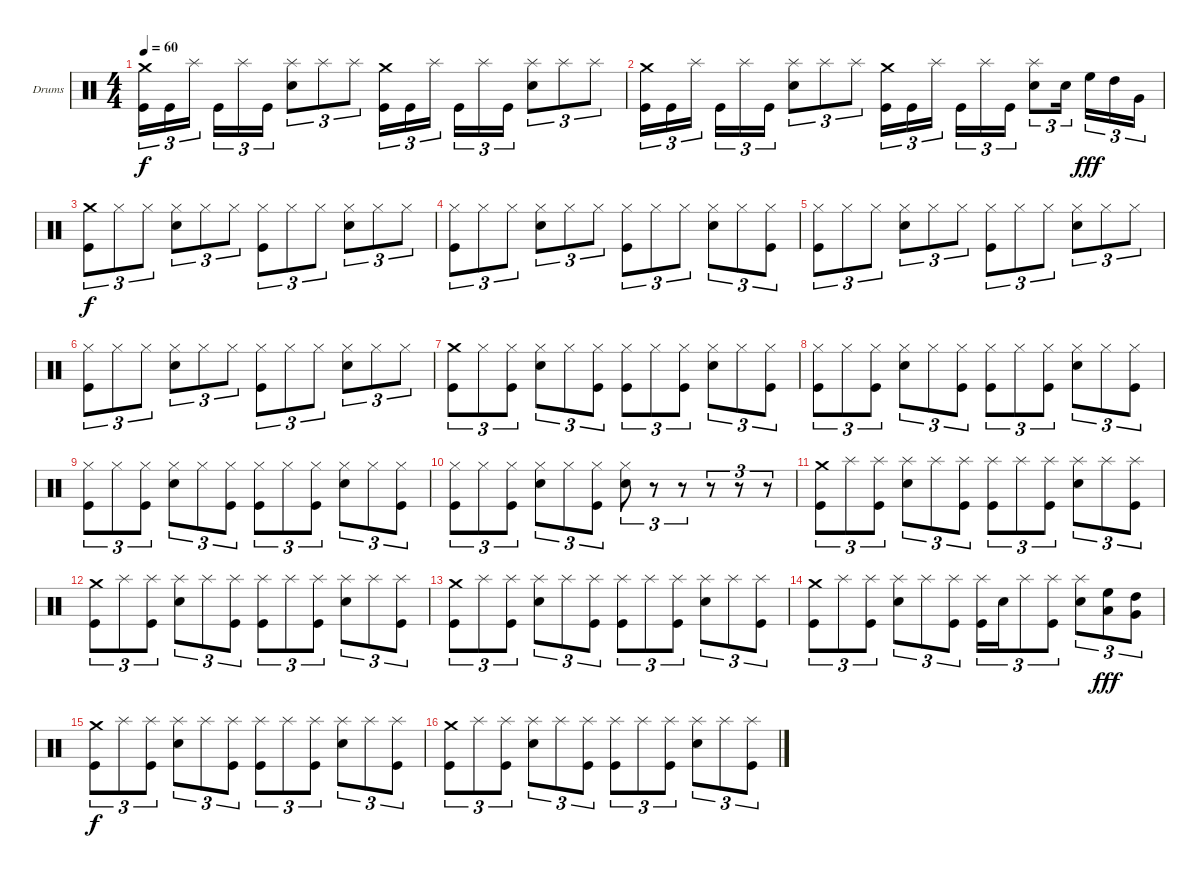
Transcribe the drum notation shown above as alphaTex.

\bracketExtendMode groupsimilarinstruments
\firstSystemTrackNameOrientation horizontal
\otherSystemsTrackNameOrientation horizontal
\track ("Drumkit" "Drums") {instrument percussion}
\staff {score}
\articulation defaults
\ts (4 4)
\tempo 60
\clef neutral
\ks c
("Crash medium (hit)" "Kick (hit)").16{tu (3 2) dy f} "Kick (hit)".16{tu (3 2)} "Splash (hit)".16{tu (3 2)} "Kick (hit)".16{tu (3 2)} "Splash (hit)".16{tu (3 2)} "Kick (hit)".16{tu (3 2)} ("Splash (hit)" "Snare (hit) 2").8{tu (3 2)} "Splash (hit)".8{tu (3 2)} "Splash (hit)".8{tu (3 2)} ("Crash medium (hit)" "Kick (hit)").16{tu (3 2)} "Kick (hit)".16{tu (3 2)} "Splash (hit)".16{tu (3 2)} "Kick (hit)".16{tu (3 2)} "Splash (hit)".16{tu (3 2)} "Kick (hit)".16{tu (3 2)} ("Splash (hit)" "Snare (hit) 2").8{tu (3 2)} "Splash (hit)".8{tu (3 2)} "Splash (hit)".8{tu (3 2)} |
("Crash medium (hit)" "Kick (hit)").16{tu (3 2)} "Kick (hit)".16{tu (3 2)} "Splash (hit)".16{tu (3 2)} "Kick (hit)".16{tu (3 2)} "Splash (hit)".16{tu (3 2)} "Kick (hit)".16{tu (3 2)} ("Splash (hit)" "Snare (hit) 2").8{tu (3 2)} "Splash (hit)".8{tu (3 2)} "Splash (hit)".8{tu (3 2)} ("Crash medium (hit)" "Kick (hit)").16{tu (3 2)} "Kick (hit)".16{tu (3 2)} "Splash (hit)".16{tu (3 2)} "Kick (hit)".16{tu (3 2)} "Splash (hit)".16{tu (3 2)} "Kick (hit)".16{tu (3 2)} ("Splash (hit)" "Snare (hit) 2").8{tu (3 2)} "Snare (hit) 2".16{tu (3 2)} "High Floor Tom (hit)".16{tu (3 2) dy fff} "High Tom (hit)".16{tu (3 2)} "Very Low Tom (hit)".16{tu (3 2)} |
("Crash medium (hit)" "Kick (hit)").8{tu (3 2) dy f} "Hi-Hat (closed)".8{tu (3 2)} "Hi-Hat (closed)".8{tu (3 2)} ("Hi-Hat (closed)" "Snare (hit) 2").8{tu (3 2)} "Hi-Hat (closed)".8{tu (3 2)} "Hi-Hat (closed)".8{tu (3 2)} ("Hi-Hat (closed)" "Kick (hit)").8{tu (3 2)} "Hi-Hat (closed)".8{tu (3 2)} "Hi-Hat (closed)".8{tu (3 2)} ("Hi-Hat (closed)" "Snare (hit) 2").8{tu (3 2)} "Hi-Hat (closed)".8{tu (3 2)} "Hi-Hat (closed)".8{tu (3 2)} |
("Hi-Hat (closed)" "Kick (hit)").8{tu (3 2)} "Hi-Hat (closed)".8{tu (3 2)} "Hi-Hat (closed)".8{tu (3 2)} ("Hi-Hat (closed)" "Snare (hit) 2").8{tu (3 2)} "Hi-Hat (closed)".8{tu (3 2)} "Hi-Hat (closed)".8{tu (3 2)} ("Hi-Hat (closed)" "Kick (hit)").8{tu (3 2)} "Hi-Hat (closed)".8{tu (3 2)} "Hi-Hat (closed)".8{tu (3 2)} ("Hi-Hat (closed)" "Snare (hit) 2").8{tu (3 2)} "Hi-Hat (closed)".8{tu (3 2)} ("Hi-Hat (closed)" "Kick (hit)").8{tu (3 2)} |
("Hi-Hat (closed)" "Kick (hit)").8{tu (3 2)} "Hi-Hat (closed)".8{tu (3 2)} "Hi-Hat (closed)".8{tu (3 2)} ("Hi-Hat (closed)" "Snare (hit) 2").8{tu (3 2)} "Hi-Hat (closed)".8{tu (3 2)} "Hi-Hat (closed)".8{tu (3 2)} ("Hi-Hat (closed)" "Kick (hit)").8{tu (3 2)} "Hi-Hat (closed)".8{tu (3 2)} "Hi-Hat (closed)".8{tu (3 2)} ("Hi-Hat (closed)" "Snare (hit) 2").8{tu (3 2)} "Hi-Hat (closed)".8{tu (3 2)} "Hi-Hat (closed)".8{tu (3 2)} |
("Hi-Hat (closed)" "Kick (hit)").8{tu (3 2)} "Hi-Hat (closed)".8{tu (3 2)} "Hi-Hat (closed)".8{tu (3 2)} ("Hi-Hat (closed)" "Snare (hit) 2").8{tu (3 2)} "Hi-Hat (closed)".8{tu (3 2)} "Hi-Hat (closed)".8{tu (3 2)} ("Hi-Hat (closed)" "Kick (hit)").8{tu (3 2)} "Hi-Hat (closed)".8{tu (3 2)} "Hi-Hat (closed)".8{tu (3 2)} ("Hi-Hat (closed)" "Snare (hit) 2").8{tu (3 2)} "Hi-Hat (closed)".8{tu (3 2)} "Hi-Hat (closed)".8{tu (3 2)} |
("Crash medium (hit)" "Kick (hit)").8{tu (3 2)} "Hi-Hat (closed)".8{tu (3 2)} ("Hi-Hat (closed)" "Kick (hit)").8{tu (3 2)} ("Hi-Hat (closed)" "Snare (hit) 2").8{tu (3 2)} "Hi-Hat (closed)".8{tu (3 2)} ("Hi-Hat (closed)" "Kick (hit)").8{tu (3 2)} ("Hi-Hat (closed)" "Kick (hit)").8{tu (3 2)} "Hi-Hat (closed)".8{tu (3 2)} ("Hi-Hat (closed)" "Kick (hit)").8{tu (3 2)} ("Hi-Hat (closed)" "Snare (hit) 2").8{tu (3 2)} "Hi-Hat (closed)".8{tu (3 2)} ("Hi-Hat (closed)" "Kick (hit)").8{tu (3 2)} |
("Hi-Hat (closed)" "Kick (hit)").8{tu (3 2)} "Hi-Hat (closed)".8{tu (3 2)} ("Hi-Hat (closed)" "Kick (hit)").8{tu (3 2)} ("Hi-Hat (closed)" "Snare (hit) 2").8{tu (3 2)} "Hi-Hat (closed)".8{tu (3 2)} ("Hi-Hat (closed)" "Kick (hit)").8{tu (3 2)} ("Hi-Hat (closed)" "Kick (hit)").8{tu (3 2)} "Hi-Hat (closed)".8{tu (3 2)} ("Hi-Hat (closed)" "Kick (hit)").8{tu (3 2)} ("Hi-Hat (closed)" "Snare (hit) 2").8{tu (3 2)} "Hi-Hat (closed)".8{tu (3 2)} ("Hi-Hat (closed)" "Kick (hit)").8{tu (3 2)} |
("Hi-Hat (closed)" "Kick (hit)").8{tu (3 2)} "Hi-Hat (closed)".8{tu (3 2)} ("Hi-Hat (closed)" "Kick (hit)").8{tu (3 2)} ("Hi-Hat (closed)" "Snare (hit) 2").8{tu (3 2)} "Hi-Hat (closed)".8{tu (3 2)} ("Hi-Hat (closed)" "Kick (hit)").8{tu (3 2)} ("Hi-Hat (closed)" "Kick (hit)").8{tu (3 2)} "Hi-Hat (closed)".8{tu (3 2)} ("Hi-Hat (closed)" "Kick (hit)").8{tu (3 2)} ("Hi-Hat (closed)" "Snare (hit) 2").8{tu (3 2)} "Hi-Hat (closed)".8{tu (3 2)} ("Hi-Hat (closed)" "Kick (hit)").8{tu (3 2)} |
("Hi-Hat (closed)" "Kick (hit)").8{tu (3 2)} "Hi-Hat (closed)".8{tu (3 2)} ("Hi-Hat (closed)" "Kick (hit)").8{tu (3 2)} ("Hi-Hat (closed)" "Snare (hit) 2").8{tu (3 2)} "Hi-Hat (closed)".8{tu (3 2)} ("Hi-Hat (closed)" "Kick (hit)").8{tu (3 2)} ("Hi-Hat (closed)" "Snare (hit) 2").8{tu (3 2)} r.8{tu (3 2)} r.8{tu (3 2)} r.8{tu (3 2)} r.8{tu (3 2)} r.8{tu (3 2)} |
("Crash medium (hit)" "Kick (hit)").8{tu (3 2)} "Splash (hit)".8{tu (3 2)} ("Splash (hit)" "Kick (hit)").8{tu (3 2)} ("Splash (hit)" "Snare (hit) 2").8{tu (3 2)} "Splash (hit)".8{tu (3 2)} ("Splash (hit)" "Kick (hit)").8{tu (3 2)} ("Splash (hit)" "Kick (hit)").8{tu (3 2)} "Splash (hit)".8{tu (3 2)} ("Splash (hit)" "Kick (hit)").8{tu (3 2)} ("Splash (hit)" "Snare (hit) 2").8{tu (3 2)} "Splash (hit)".8{tu (3 2)} ("Splash (hit)" "Kick (hit)").8{tu (3 2)} |
("Crash medium (hit)" "Kick (hit)").8{tu (3 2)} "Splash (hit)".8{tu (3 2)} ("Splash (hit)" "Kick (hit)").8{tu (3 2)} ("Splash (hit)" "Snare (hit) 2").8{tu (3 2)} "Splash (hit)".8{tu (3 2)} ("Splash (hit)" "Kick (hit)").8{tu (3 2)} ("Splash (hit)" "Kick (hit)").8{tu (3 2)} "Splash (hit)".8{tu (3 2)} ("Splash (hit)" "Kick (hit)").8{tu (3 2)} ("Splash (hit)" "Snare (hit) 2").8{tu (3 2)} "Splash (hit)".8{tu (3 2)} ("Splash (hit)" "Kick (hit)").8{tu (3 2)} |
("Crash medium (hit)" "Kick (hit)").8{tu (3 2)} "Splash (hit)".8{tu (3 2)} ("Splash (hit)" "Kick (hit)").8{tu (3 2)} ("Splash (hit)" "Snare (hit) 2").8{tu (3 2)} "Splash (hit)".8{tu (3 2)} ("Splash (hit)" "Kick (hit)").8{tu (3 2)} ("Splash (hit)" "Kick (hit)").8{tu (3 2)} "Splash (hit)".8{tu (3 2)} ("Splash (hit)" "Kick (hit)").8{tu (3 2)} ("Splash (hit)" "Snare (hit) 2").8{tu (3 2)} "Splash (hit)".8{tu (3 2)} ("Splash (hit)" "Kick (hit)").8{tu (3 2)} |
("Crash medium (hit)" "Kick (hit)").8{tu (3 2)} "Splash (hit)".8{tu (3 2)} ("Splash (hit)" "Kick (hit)").8{tu (3 2)} ("Splash (hit)" "Snare (hit) 2").8{tu (3 2)} "Splash (hit)".8{tu (3 2)} ("Splash (hit)" "Kick (hit)").8{tu (3 2)} ("Splash (hit)" "Kick (hit)").16{tu (3 2)} "Snare (hit) 2".16{tu (3 2)} "Splash (hit)".8{tu (3 2)} ("Splash (hit)" "Kick (hit)").8{tu (3 2)} ("Splash (hit)" "Snare (hit) 2").8{tu (3 2)} ("High Floor Tom (hit)" "Low Tom (hit)").8{tu (3 2) dy fff} ("High Tom (hit)" "Very Low Tom (hit)").8{tu (3 2)} |
("Crash medium (hit)" "Kick (hit)").8{tu (3 2) dy f} "Splash (hit)".8{tu (3 2)} ("Splash (hit)" "Kick (hit)").8{tu (3 2)} ("Splash (hit)" "Snare (hit) 2").8{tu (3 2)} "Splash (hit)".8{tu (3 2)} ("Splash (hit)" "Kick (hit)").8{tu (3 2)} ("Splash (hit)" "Kick (hit)").8{tu (3 2)} "Splash (hit)".8{tu (3 2)} ("Splash (hit)" "Kick (hit)").8{tu (3 2)} ("Splash (hit)" "Snare (hit) 2").8{tu (3 2)} "Splash (hit)".8{tu (3 2)} ("Splash (hit)" "Kick (hit)").8{tu (3 2)} |
("Crash medium (hit)" "Kick (hit)").8{tu (3 2)} "Splash (hit)".8{tu (3 2)} ("Splash (hit)" "Kick (hit)").8{tu (3 2)} ("Splash (hit)" "Snare (hit) 2").8{tu (3 2)} "Splash (hit)".8{tu (3 2)} ("Splash (hit)" "Kick (hit)").8{tu (3 2)} ("Splash (hit)" "Kick (hit)").8{tu (3 2)} "Splash (hit)".8{tu (3 2)} ("Splash (hit)" "Kick (hit)").8{tu (3 2)} ("Splash (hit)" "Snare (hit) 2").8{tu (3 2)} "Splash (hit)".8{tu (3 2)} ("Splash (hit)" "Kick (hit)").8{tu (3 2)}
